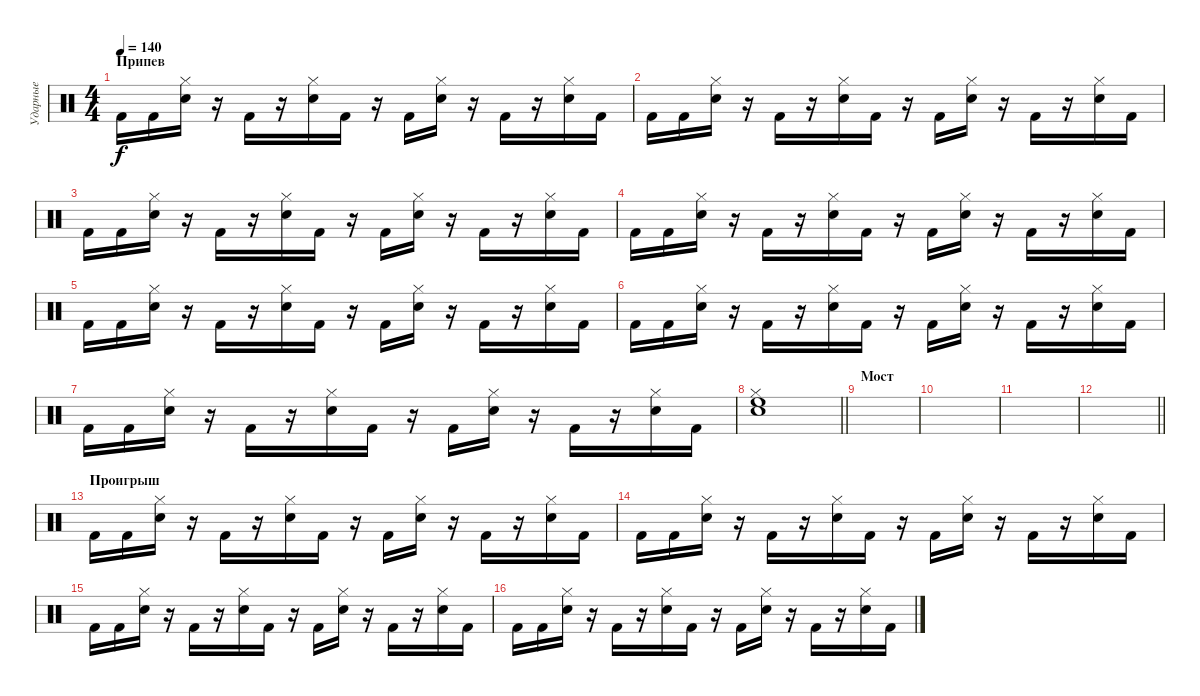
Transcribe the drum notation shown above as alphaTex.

\track ("Ударные" "Ударные") {instrument percussion}
\staff {score}
\articulation defaults
\ts (4 4)
\section ("" "Припев")
\tempo 140
\clef neutral
\ks c "Kick (hit) 2".16{dy f} "Kick (hit) 2".16
("Snare (hit) 2" "Hi-Hat (closed)").16 r.16 "Kick (hit) 2".16 r.16 ("Snare (hit) 2" "Hi-Hat (closed)").16 "Kick (hit) 2".16 r.16 "Kick (hit) 2".16 ("Snare (hit) 2" "Hi-Hat (closed)").16 r.16 "Kick (hit) 2".16 r.16 ("Snare (hit) 2" "Hi-Hat (closed)").16 "Kick (hit) 2".16 |
"Kick (hit) 2".16 "Kick (hit) 2".16 ("Snare (hit) 2" "Hi-Hat (closed)").16 r.16 "Kick (hit) 2".16 r.16 ("Snare (hit) 2" "Hi-Hat (closed)").16 "Kick (hit) 2".16 r.16 "Kick (hit) 2".16 ("Snare (hit) 2" "Hi-Hat (closed)").16 r.16 "Kick (hit) 2".16 r.16 ("Snare (hit) 2" "Hi-Hat (closed)").16 "Kick (hit) 2".16 |
"Kick (hit) 2".16 "Kick (hit) 2".16 ("Snare (hit) 2" "Hi-Hat (closed)").16 r.16 "Kick (hit) 2".16 r.16 ("Snare (hit) 2" "Hi-Hat (closed)").16 "Kick (hit) 2".16 r.16 "Kick (hit) 2".16 ("Snare (hit) 2" "Hi-Hat (closed)").16 r.16 "Kick (hit) 2".16 r.16 ("Snare (hit) 2" "Hi-Hat (closed)").16 "Kick (hit) 2".16 |
"Kick (hit) 2".16{volume 14} "Kick (hit) 2".16 ("Snare (hit) 2" "Hi-Hat (closed)").16 r.16 "Kick (hit) 2".16 r.16 ("Snare (hit) 2" "Hi-Hat (closed)").16 "Kick (hit) 2".16 r.16 "Kick (hit) 2".16 ("Snare (hit) 2" "Hi-Hat (closed)").16 r.16 "Kick (hit) 2".16 r.16 ("Snare (hit) 2" "Hi-Hat (closed)").16 "Kick (hit) 2".16 |
"Kick (hit) 2".16{volume 14} "Kick (hit) 2".16 ("Snare (hit) 2" "Hi-Hat (closed)").16 r.16 "Kick (hit) 2".16 r.16 ("Snare (hit) 2" "Hi-Hat (closed)").16 "Kick (hit) 2".16 r.16 "Kick (hit) 2".16 ("Snare (hit) 2" "Hi-Hat (closed)").16 r.16 "Kick (hit) 2".16 r.16 ("Snare (hit) 2" "Hi-Hat (closed)").16 "Kick (hit) 2".16 |
"Kick (hit) 2".16{volume 14} "Kick (hit) 2".16 ("Snare (hit) 2" "Hi-Hat (closed)").16 r.16 "Kick (hit) 2".16 r.16 ("Snare (hit) 2" "Hi-Hat (closed)").16 "Kick (hit) 2".16 r.16 "Kick (hit) 2".16 ("Snare (hit) 2" "Hi-Hat (closed)").16 r.16 "Kick (hit) 2".16 r.16 ("Snare (hit) 2" "Hi-Hat (closed)").16 "Kick (hit) 2".16 |
"Kick (hit) 2".16{volume 14} "Kick (hit) 2".16 ("Snare (hit) 2" "Hi-Hat (closed)").16 r.16 "Kick (hit) 2".16 r.16 ("Snare (hit) 2" "Hi-Hat (closed)").16 "Kick (hit) 2".16 r.16 "Kick (hit) 2".16 ("Snare (hit) 2" "Hi-Hat (closed)").16 r.16 "Kick (hit) 2".16 r.16 ("Snare (hit) 2" "Hi-Hat (closed)").16 "Kick (hit) 2".16 |
\barLineRight lightlight
("High Floor Tom (hit)" "Snare (hit) 2" "Hi-Hat (closed)").1 |
\section ("" "Мост")
|
|
|
\barLineRight lightlight
|
\section ("" "Проигрыш")
"Kick (hit) 2".16{volume 16} "Kick (hit) 2".16 ("Snare (hit) 2" "Hi-Hat (closed)").16 r.16 "Kick (hit) 2".16 r.16 ("Snare (hit) 2" "Hi-Hat (closed)").16 "Kick (hit) 2".16 r.16 "Kick (hit) 2".16 ("Snare (hit) 2" "Hi-Hat (closed)").16 r.16 "Kick (hit) 2".16 r.16 ("Snare (hit) 2" "Hi-Hat (closed)").16 "Kick (hit) 2".16 |
"Kick (hit) 2".16 "Kick (hit) 2".16 ("Snare (hit) 2" "Hi-Hat (closed)").16 r.16 "Kick (hit) 2".16 r.16 ("Snare (hit) 2" "Hi-Hat (closed)").16 "Kick (hit) 2".16 r.16 "Kick (hit) 2".16 ("Snare (hit) 2" "Hi-Hat (closed)").16 r.16 "Kick (hit) 2".16 r.16 ("Snare (hit) 2" "Hi-Hat (closed)").16 "Kick (hit) 2".16 |
"Kick (hit) 2".16 "Kick (hit) 2".16 ("Snare (hit) 2" "Hi-Hat (closed)").16 r.16 "Kick (hit) 2".16 r.16 ("Snare (hit) 2" "Hi-Hat (closed)").16 "Kick (hit) 2".16 r.16 "Kick (hit) 2".16 ("Snare (hit) 2" "Hi-Hat (closed)").16 r.16 "Kick (hit) 2".16 r.16 ("Snare (hit) 2" "Hi-Hat (closed)").16 "Kick (hit) 2".16 |
"Kick (hit) 2".16 "Kick (hit) 2".16 ("Snare (hit) 2" "Hi-Hat (closed)").16 r.16 "Kick (hit) 2".16 r.16 ("Snare (hit) 2" "Hi-Hat (closed)").16 "Kick (hit) 2".16 r.16 "Kick (hit) 2".16 ("Snare (hit) 2" "Hi-Hat (closed)").16 r.16 "Kick (hit) 2".16 r.16 ("Snare (hit) 2" "Hi-Hat (closed)").16 "Kick (hit) 2".16
